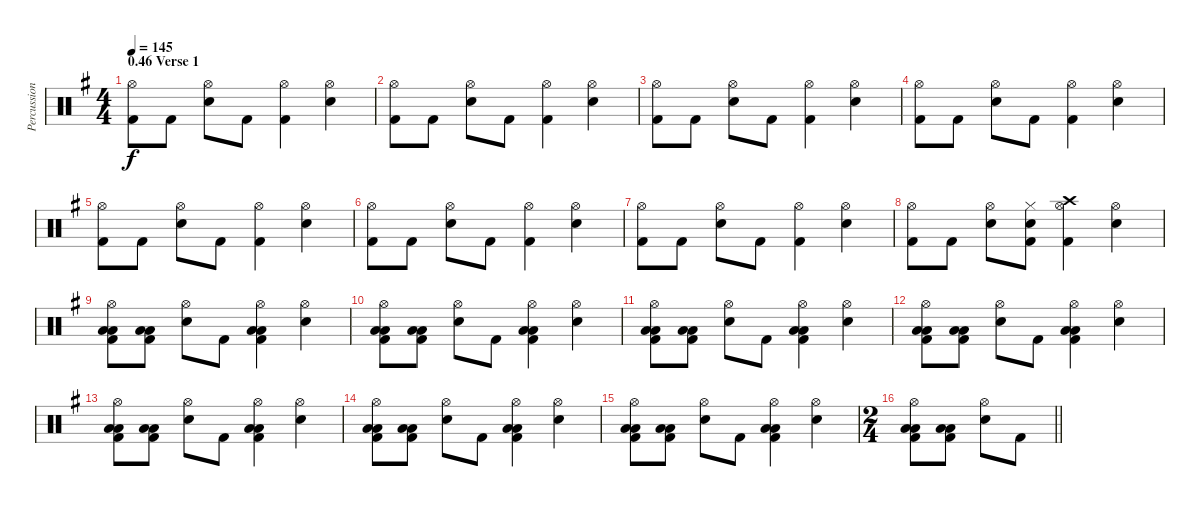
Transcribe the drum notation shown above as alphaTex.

\track ("Percussion" "Percussion") {instrument percussion}
\staff {score}
\articulation defaults
\ts (4 4)
\section ("" "0.46 Verse 1")
\tempo 145
\clef neutral
\ks eminor
("Hi-Hat (open)" "Kick (hit) 2").8{dy f} "Kick (hit) 2".8 ("Hi-Hat (open)" "Electric Snare (hit)").8 "Kick (hit) 2".8 ("Hi-Hat (open)" "Kick (hit) 2").4 ("Hi-Hat (open)" "Electric Snare (hit)").4 |
("Hi-Hat (open)" "Kick (hit) 2").8 "Kick (hit) 2".8 ("Hi-Hat (open)" "Electric Snare (hit)").8 "Kick (hit) 2".8 ("Hi-Hat (open)" "Kick (hit) 2").4 ("Hi-Hat (open)" "Electric Snare (hit)").4 |
("Hi-Hat (open)" "Kick (hit) 2").8 "Kick (hit) 2".8 ("Hi-Hat (open)" "Electric Snare (hit)").8 "Kick (hit) 2".8 ("Hi-Hat (open)" "Kick (hit) 2").4 ("Hi-Hat (open)" "Electric Snare (hit)").4 |
("Hi-Hat (open)" "Kick (hit) 2").8 "Kick (hit) 2".8 ("Hi-Hat (open)" "Electric Snare (hit)").8 "Kick (hit) 2".8 ("Hi-Hat (open)" "Kick (hit) 2").4 ("Hi-Hat (open)" "Electric Snare (hit)").4 |
("Hi-Hat (open)" "Kick (hit) 2").8 "Kick (hit) 2".8 ("Hi-Hat (open)" "Electric Snare (hit)").8 "Kick (hit) 2".8 ("Hi-Hat (open)" "Kick (hit) 2").4 ("Hi-Hat (open)" "Electric Snare (hit)").4 |
("Hi-Hat (open)" "Kick (hit) 2").8 "Kick (hit) 2".8 ("Hi-Hat (open)" "Electric Snare (hit)").8 "Kick (hit) 2".8 ("Hi-Hat (open)" "Kick (hit) 2").4 ("Hi-Hat (open)" "Electric Snare (hit)").4 |
("Hi-Hat (open)" "Kick (hit) 2").8 "Kick (hit) 2".8 ("Hi-Hat (open)" "Electric Snare (hit)").8 "Kick (hit) 2".8 ("Hi-Hat (open)" "Kick (hit) 2").4 ("Hi-Hat (open)" "Electric Snare (hit)").4 |
("Hi-Hat (open)" "Kick (hit) 2").8 "Kick (hit) 2".8 ("Hi-Hat (open)" "Electric Snare (hit)").8 ("Hi-Hat (closed)" "Electric Snare (hit)" "Kick (hit) 2").8 ("Crash high (hit)" "Hi-Hat (open)" "Kick (hit) 2").4 ("Hi-Hat (open)" "Electric Snare (hit)").4 |
("Hi-Hat (open)" "Low Tom (hit)" "Low Floor Tom (hit)" "Kick (hit) 2").8 ("Low Tom (hit)" "Low Floor Tom (hit)" "Kick (hit) 2").8 ("Hi-Hat (open)" "Electric Snare (hit)").8 "Kick (hit) 2".8 ("Hi-Hat (open)" "Low Tom (hit)" "Low Floor Tom (hit)" "Kick (hit) 2").4 ("Hi-Hat (open)" "Electric Snare (hit)").4 |
("Hi-Hat (open)" "Low Tom (hit)" "Low Floor Tom (hit)" "Kick (hit) 2").8 ("Low Tom (hit)" "Low Floor Tom (hit)" "Kick (hit) 2").8 ("Hi-Hat (open)" "Electric Snare (hit)").8 "Kick (hit) 2".8 ("Hi-Hat (open)" "Low Tom (hit)" "Low Floor Tom (hit)" "Kick (hit) 2").4 ("Hi-Hat (open)" "Electric Snare (hit)").4 |
("Hi-Hat (open)" "Low Tom (hit)" "Low Floor Tom (hit)" "Kick (hit) 2").8 ("Low Tom (hit)" "Low Floor Tom (hit)" "Kick (hit) 2").8 ("Hi-Hat (open)" "Electric Snare (hit)").8 "Kick (hit) 2".8 ("Hi-Hat (open)" "Low Tom (hit)" "Low Floor Tom (hit)" "Kick (hit) 2").4 ("Hi-Hat (open)" "Electric Snare (hit)").4 |
("Hi-Hat (open)" "Low Tom (hit)" "Low Floor Tom (hit)" "Kick (hit) 2").8 ("Low Tom (hit)" "Low Floor Tom (hit)" "Kick (hit) 2").8 ("Hi-Hat (open)" "Electric Snare (hit)").8 "Kick (hit) 2".8 ("Hi-Hat (open)" "Low Tom (hit)" "Low Floor Tom (hit)" "Kick (hit) 2").4 ("Hi-Hat (open)" "Electric Snare (hit)").4 |
("Hi-Hat (open)" "Low Tom (hit)" "Low Floor Tom (hit)" "Kick (hit) 2").8 ("Low Tom (hit)" "Low Floor Tom (hit)" "Kick (hit) 2").8 ("Hi-Hat (open)" "Electric Snare (hit)").8 "Kick (hit) 2".8 ("Hi-Hat (open)" "Low Tom (hit)" "Low Floor Tom (hit)" "Kick (hit) 2").4 ("Hi-Hat (open)" "Electric Snare (hit)").4 |
("Hi-Hat (open)" "Low Tom (hit)" "Low Floor Tom (hit)" "Kick (hit) 2").8 ("Low Tom (hit)" "Low Floor Tom (hit)" "Kick (hit) 2").8 ("Hi-Hat (open)" "Electric Snare (hit)").8 "Kick (hit) 2".8 ("Hi-Hat (open)" "Low Tom (hit)" "Low Floor Tom (hit)" "Kick (hit) 2").4 ("Hi-Hat (open)" "Electric Snare (hit)").4 |
("Hi-Hat (open)" "Low Tom (hit)" "Low Floor Tom (hit)" "Kick (hit) 2").8 ("Low Tom (hit)" "Low Floor Tom (hit)" "Kick (hit) 2").8 ("Hi-Hat (open)" "Electric Snare (hit)").8 "Kick (hit) 2".8 ("Hi-Hat (open)" "Low Tom (hit)" "Low Floor Tom (hit)" "Kick (hit) 2").4 ("Hi-Hat (open)" "Electric Snare (hit)").4 |
\ts (2 4)
\barLineRight lightlight
("Hi-Hat (open)" "Low Tom (hit)" "Low Floor Tom (hit)" "Kick (hit) 2").8 ("Low Tom (hit)" "Low Floor Tom (hit)" "Kick (hit) 2").8 ("Hi-Hat (open)" "Electric Snare (hit)").8 "Kick (hit) 2".8
